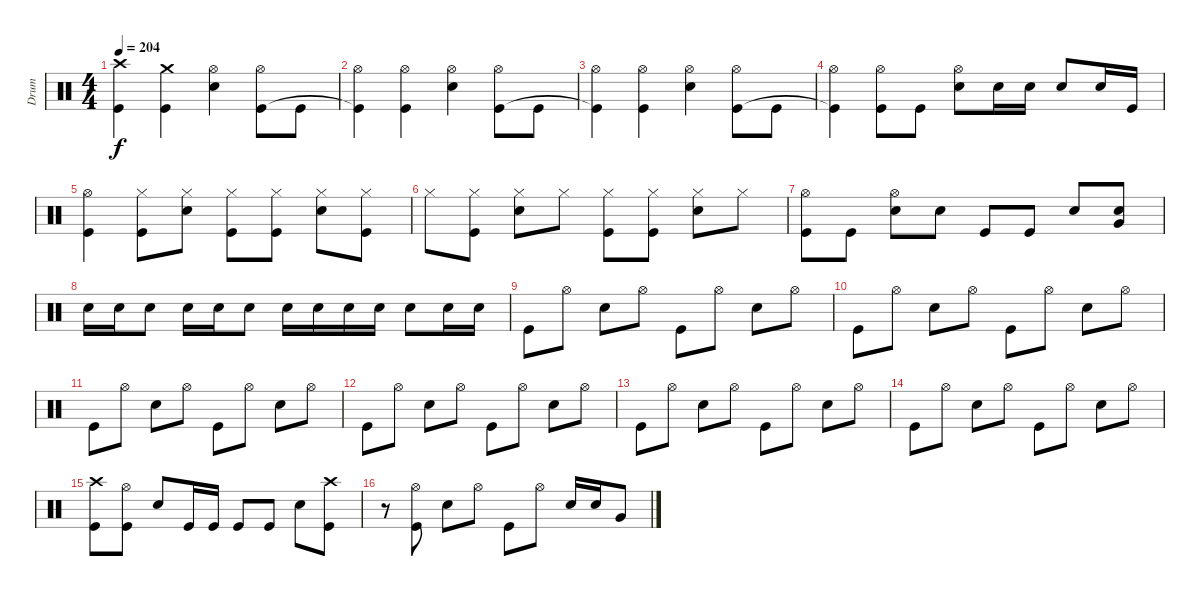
\track ("Drum" "Drum") {instrument percussion}
\staff {score}
\articulation defaults
\ts (4 4)
\tempo 204
\clef neutral
\ks c
("Crash high (hit)" "Kick (hit)").4{dy f} ("Crash medium (hit)" "Kick (hit)").4 ("Hi-Hat (open)" "Snare (hit) 2").4 ("Hi-Hat (open)" "Kick (hit)").8 "Kick (hit)".8 |
("Hi-Hat (open)" "Kick (hit)"{t}).4 ("Hi-Hat (open)" "Kick (hit)").4 ("Hi-Hat (open)" "Snare (hit) 2").4 ("Hi-Hat (open)" "Kick (hit)").8 "Kick (hit)".8 |
("Hi-Hat (open)" "Kick (hit)"{t}).4 ("Hi-Hat (open)" "Kick (hit)").4 ("Hi-Hat (open)" "Snare (hit) 2").4 ("Hi-Hat (open)" "Kick (hit)").8 "Kick (hit)".8 |
("Hi-Hat (open)" "Kick (hit)"{t}).4 ("Hi-Hat (open)" "Kick (hit)").8 "Kick (hit)".8 ("Hi-Hat (open)" "Snare (hit) 2").8 "Snare (hit) 2".16 "Snare (hit) 2".16 "Snare (hit) 2".8 "Snare (hit) 2".16 "Kick (hit)".16 |
("Hi-Hat (open)" "Kick (hit)").4 ("Hi-Hat (closed)" "Kick (hit)").8 ("Hi-Hat (closed)" "Snare (hit) 2").8 ("Hi-Hat (closed)" "Kick (hit)").8 ("Hi-Hat (closed)" "Kick (hit)").8 ("Hi-Hat (closed)" "Snare (hit) 2").8 ("Hi-Hat (closed)" "Kick (hit)").8 |
"Hi-Hat (closed)".8 ("Hi-Hat (closed)" "Kick (hit)").8 ("Hi-Hat (closed)" "Snare (hit) 2").8 "Hi-Hat (closed)".8 ("Hi-Hat (closed)" "Kick (hit)").8 ("Hi-Hat (closed)" "Kick (hit)").8 ("Hi-Hat (closed)" "Snare (hit) 2").8 "Hi-Hat (closed)".8 |
("Hi-Hat (open)" "Kick (hit)").8 "Kick (hit)".8 ("Hi-Hat (open)" "Snare (hit) 2").8 "Snare (hit) 2".8 "Kick (hit)".8 "Kick (hit)".8 "Snare (hit) 2".8 ("Snare (hit) 2" "Very Low Tom (hit)").8 |
"Snare (hit) 2".16 "Snare (hit) 2".16 "Snare (hit) 2".8 "Snare (hit) 2".16 "Snare (hit) 2".16 "Snare (hit) 2".8 "Snare (hit) 2".16 "Snare (hit) 2".16 "Snare (hit) 2".16 "Snare (hit) 2".16 "Snare (hit) 2".8 "Snare (hit) 2".16 "Snare (hit) 2".16 |
"Kick (hit)".8 "Hi-Hat (open)".8 "Snare (hit) 2".8 "Hi-Hat (open)".8 "Kick (hit)".8 "Hi-Hat (open)".8 "Snare (hit) 2".8 "Hi-Hat (open)".8 |
"Kick (hit)".8 "Hi-Hat (open)".8 "Snare (hit) 2".8 "Hi-Hat (open)".8 "Kick (hit)".8 "Hi-Hat (open)".8 "Snare (hit) 2".8 "Hi-Hat (open)".8 |
"Kick (hit)".8 "Hi-Hat (open)".8 "Snare (hit) 2".8 "Hi-Hat (open)".8 "Kick (hit)".8 "Hi-Hat (open)".8 "Snare (hit) 2".8 "Hi-Hat (open)".8 |
"Kick (hit)".8 "Hi-Hat (open)".8 "Snare (hit) 2".8 "Hi-Hat (open)".8 "Kick (hit)".8 "Hi-Hat (open)".8 "Snare (hit) 2".8 "Hi-Hat (open)".8 |
"Kick (hit)".8 "Hi-Hat (open)".8 "Snare (hit) 2".8 "Hi-Hat (open)".8 "Kick (hit)".8 "Hi-Hat (open)".8 "Snare (hit) 2".8 "Hi-Hat (open)".8 |
"Kick (hit)".8 "Hi-Hat (open)".8 "Snare (hit) 2".8 "Hi-Hat (open)".8 "Kick (hit)".8 "Hi-Hat (open)".8 "Snare (hit) 2".8 "Hi-Hat (open)".8 |
("Crash high (hit)" "Kick (hit)").8 ("Hi-Hat (open)" "Kick (hit)").8 "Snare (hit) 2".8 "Kick (hit)".16 "Kick (hit)".16 "Kick (hit)".8 "Kick (hit)".8 "Snare (hit) 2".8 ("Crash high (hit)" "Kick (hit)").8 |
r.8 ("Hi-Hat (open)" "Kick (hit)").8 "Snare (hit) 2".8 "Hi-Hat (open)".8 "Kick (hit)".8 "Hi-Hat (open)".8 "Snare (hit) 2".16 "Snare (hit) 2".16 "Very Low Tom (hit)".8
